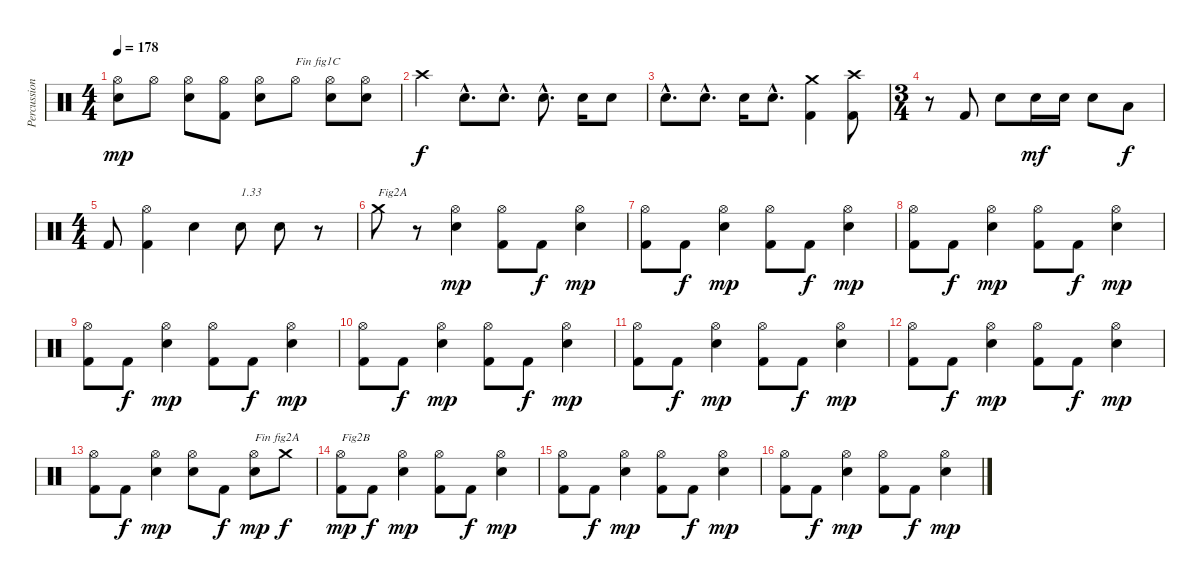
\track ("Percussions" "Percussion") {instrument percussion}
\staff {score}
\articulation defaults
\ts (4 4)
\tempo 178
\clef neutral
\ks c
("Electric Snare (hit)" "Hi-Hat (open)").8{dy mp} "Hi-Hat (open)".8 ("Electric Snare (hit)" "Hi-Hat (open)").8 ("Kick (hit) 2" "Hi-Hat (open)").8 ("Electric Snare (hit)" "Hi-Hat (open)").8 "Hi-Hat (open)".8{txt "Fin fig1C"} ("Electric Snare (hit)" "Hi-Hat (open)").8 ("Electric Snare (hit)" "Hi-Hat (open)").8 |
"Crash high (hit)".4{dy f} "Electric Snare (hit)"{hac}.8{d} "Electric Snare (hit)"{hac}.8{d} "Electric Snare (hit)"{hac}.8{d} "Electric Snare (hit)".16 "Electric Snare (hit)".8 |
"Electric Snare (hit)"{hac}.8{d} "Electric Snare (hit)"{hac}.8{d} "Electric Snare (hit)".16 "Electric Snare (hit)"{hac}.8{d} ("Kick (hit) 2" "Crash medium (hit)").4 ("Kick (hit) 2" "Crash high (hit)").8 |
\ts (3 4)
r.8 "Kick (hit) 2".8 "Electric Snare (hit)".8 "Electric Snare (hit)".16{dy mf} "Electric Snare (hit)".16 "Electric Snare (hit)".8 "Low Floor Tom (hit)".8{dy f} |
\ts (4 4)
"Kick (hit) 2".8 ("Kick (hit) 2" "Hi-Hat (open)").4 "Electric Snare (hit)".4 "Electric Snare (hit)".8{txt "1.33"} "Electric Snare (hit)".8 r.8 |
"Crash medium (hit)".8{txt "Fig2A"} r.8 ("Electric Snare (hit)" "Hi-Hat (open)").4{dy mp} ("Kick (hit) 2" "Hi-Hat (open)").8 "Kick (hit) 2".8{dy f} ("Electric Snare (hit)" "Hi-Hat (open)").4{dy mp} |
("Kick (hit) 2" "Hi-Hat (open)").8 "Kick (hit) 2".8{dy f} ("Electric Snare (hit)" "Hi-Hat (open)").4{dy mp} ("Kick (hit) 2" "Hi-Hat (open)").8 "Kick (hit) 2".8{dy f} ("Electric Snare (hit)" "Hi-Hat (open)").4{dy mp} |
("Kick (hit) 2" "Hi-Hat (open)").8 "Kick (hit) 2".8{dy f} ("Electric Snare (hit)" "Hi-Hat (open)").4{dy mp} ("Kick (hit) 2" "Hi-Hat (open)").8 "Kick (hit) 2".8{dy f} ("Electric Snare (hit)" "Hi-Hat (open)").4{dy mp} |
("Kick (hit) 2" "Hi-Hat (open)").8 "Kick (hit) 2".8{dy f} ("Electric Snare (hit)" "Hi-Hat (open)").4{dy mp} ("Kick (hit) 2" "Hi-Hat (open)").8 "Kick (hit) 2".8{dy f} ("Electric Snare (hit)" "Hi-Hat (open)").4{dy mp} |
("Kick (hit) 2" "Hi-Hat (open)").8 "Kick (hit) 2".8{dy f} ("Electric Snare (hit)" "Hi-Hat (open)").4{dy mp} ("Kick (hit) 2" "Hi-Hat (open)").8 "Kick (hit) 2".8{dy f} ("Electric Snare (hit)" "Hi-Hat (open)").4{dy mp} |
("Kick (hit) 2" "Hi-Hat (open)").8 "Kick (hit) 2".8{dy f} ("Electric Snare (hit)" "Hi-Hat (open)").4{dy mp} ("Kick (hit) 2" "Hi-Hat (open)").8 "Kick (hit) 2".8{dy f} ("Electric Snare (hit)" "Hi-Hat (open)").4{dy mp} |
("Kick (hit) 2" "Hi-Hat (open)").8 "Kick (hit) 2".8{dy f} ("Electric Snare (hit)" "Hi-Hat (open)").4{dy mp} ("Kick (hit) 2" "Hi-Hat (open)").8 "Kick (hit) 2".8{dy f} ("Electric Snare (hit)" "Hi-Hat (open)").4{dy mp} |
("Kick (hit) 2" "Hi-Hat (open)").8 "Kick (hit) 2".8{dy f} ("Electric Snare (hit)" "Hi-Hat (open)").4{dy mp} ("Electric Snare (hit)" "Hi-Hat (open)").8 "Kick (hit) 2".8{dy f} ("Electric Snare (hit)" "Hi-Hat (open)").8{txt "Fin fig2A" dy mp} "Crash medium (hit)".8{dy f} |
("Kick (hit) 2" "Hi-Hat (open)").8{txt "Fig2B" dy mp} "Kick (hit) 2".8{dy f} ("Electric Snare (hit)" "Hi-Hat (open)").4{dy mp} ("Kick (hit) 2" "Hi-Hat (open)").8 "Kick (hit) 2".8{dy f} ("Electric Snare (hit)" "Hi-Hat (open)").4{dy mp} |
("Kick (hit) 2" "Hi-Hat (open)").8 "Kick (hit) 2".8{dy f} ("Electric Snare (hit)" "Hi-Hat (open)").4{dy mp} ("Kick (hit) 2" "Hi-Hat (open)").8 "Kick (hit) 2".8{dy f} ("Electric Snare (hit)" "Hi-Hat (open)").4{dy mp} |
("Kick (hit) 2" "Hi-Hat (open)").8 "Kick (hit) 2".8{dy f} ("Electric Snare (hit)" "Hi-Hat (open)").4{dy mp} ("Kick (hit) 2" "Hi-Hat (open)").8 "Kick (hit) 2".8{dy f} ("Electric Snare (hit)" "Hi-Hat (open)").4{dy mp}
